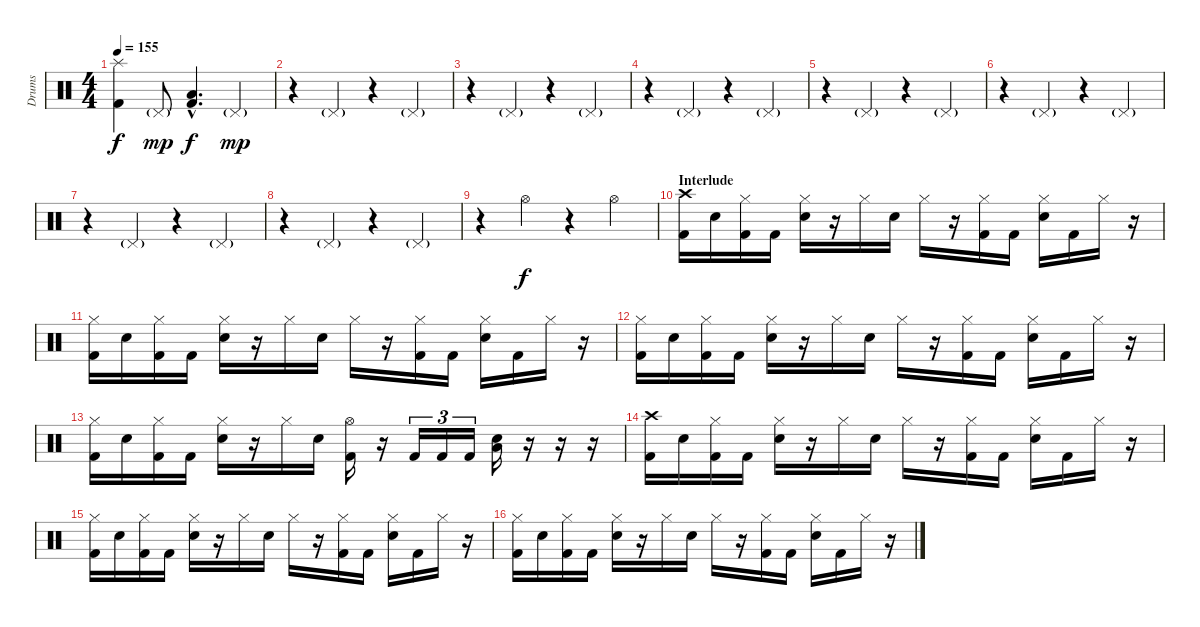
\track ("Drums" "Drums") {instrument percussion}
\staff {score}
\articulation defaults
\ts (4 4)
\tempo 155
\clef neutral
\ks c
("Splash (hit)" "Kick (hit) 2").4{dy f} "Pedal Hi-Hat (hit)"{g}.8{dy mp} ("Low Tom (hit)"{hac} "Kick (hit) 2"{hac}).4{d dy f} "Pedal Hi-Hat (hit)"{g}.4{dy mp} |
r.4 "Pedal Hi-Hat (hit)"{g}.4 r.4 "Pedal Hi-Hat (hit)"{g}.4 |
r.4 "Pedal Hi-Hat (hit)"{g}.4 r.4 "Pedal Hi-Hat (hit)"{g}.4 |
r.4 "Pedal Hi-Hat (hit)"{g}.4 r.4 "Pedal Hi-Hat (hit)"{g}.4 |
r.4 "Pedal Hi-Hat (hit)"{g}.4 r.4 "Pedal Hi-Hat (hit)"{g}.4 |
r.4 "Pedal Hi-Hat (hit)"{g}.4 r.4 "Pedal Hi-Hat (hit)"{g}.4 |
r.4 "Pedal Hi-Hat (hit)"{g}.4 r.4 "Pedal Hi-Hat (hit)"{g}.4 |
r.4 "Pedal Hi-Hat (hit)"{g}.4 r.4 "Pedal Hi-Hat (hit)"{g}.4 |
r.4 "Hi-Hat (open)".4{dy f} r.4 "Hi-Hat (open)".4 |
\section ("" "Interlude")
("Crash high (hit)" "Kick (hit) 2").16 "Electric Snare (hit)".16 ("Hi-Hat (closed)" "Kick (hit) 2").16 "Kick (hit) 2".16 ("Hi-Hat (closed)" "Electric Snare (hit)").16 r.16 "Hi-Hat (closed)".16 "Electric Snare (hit)".16 "Hi-Hat (closed)".16 r.16 ("Hi-Hat (closed)" "Kick (hit) 2").16 "Kick (hit) 2".16 ("Hi-Hat (closed)" "Electric Snare (hit)").16 "Kick (hit) 2".16 "Hi-Hat (closed)".16 r.16 |
("Hi-Hat (closed)" "Kick (hit) 2").16 "Electric Snare (hit)".16 ("Hi-Hat (closed)" "Kick (hit) 2").16 "Kick (hit) 2".16 ("Hi-Hat (closed)" "Electric Snare (hit)").16 r.16 "Hi-Hat (closed)".16 "Electric Snare (hit)".16 "Hi-Hat (closed)".16 r.16 ("Hi-Hat (closed)" "Kick (hit) 2").16 "Kick (hit) 2".16 ("Hi-Hat (closed)" "Electric Snare (hit)").16 "Kick (hit) 2".16 "Hi-Hat (closed)".16 r.16 |
("Hi-Hat (closed)" "Kick (hit) 2").16 "Electric Snare (hit)".16 ("Hi-Hat (closed)" "Kick (hit) 2").16 "Kick (hit) 2".16 ("Hi-Hat (closed)" "Electric Snare (hit)").16 r.16 "Hi-Hat (closed)".16 "Electric Snare (hit)".16 "Hi-Hat (closed)".16 r.16 ("Hi-Hat (closed)" "Kick (hit) 2").16 "Kick (hit) 2".16 ("Hi-Hat (closed)" "Electric Snare (hit)").16 "Kick (hit) 2".16 "Hi-Hat (closed)".16 r.16 |
("Hi-Hat (closed)" "Kick (hit) 2").16 "Electric Snare (hit)".16 ("Hi-Hat (closed)" "Kick (hit) 2").16 "Kick (hit) 2".16 ("Hi-Hat (closed)" "Electric Snare (hit)").16 r.16 "Hi-Hat (closed)".16 "Electric Snare (hit)".16 ("Hi-Hat (open)" "Kick (hit) 2").16 r.16 "Kick (hit) 2".16{tu (3 2)} "Kick (hit) 2".16{tu (3 2)} "Kick (hit) 2".16{tu (3 2)} ("Electric Snare (hit)" "Low Tom (hit)").16 r.16 r.16 r.16 |
("Crash high (hit)" "Kick (hit) 2").16 "Electric Snare (hit)".16 ("Hi-Hat (closed)" "Kick (hit) 2").16 "Kick (hit) 2".16 ("Hi-Hat (closed)" "Electric Snare (hit)").16 r.16 "Hi-Hat (closed)".16 "Electric Snare (hit)".16 "Hi-Hat (closed)".16 r.16 ("Hi-Hat (closed)" "Kick (hit) 2").16 "Kick (hit) 2".16 ("Hi-Hat (closed)" "Electric Snare (hit)").16 "Kick (hit) 2".16 "Hi-Hat (closed)".16 r.16 |
("Hi-Hat (closed)" "Kick (hit) 2").16 "Electric Snare (hit)".16 ("Hi-Hat (closed)" "Kick (hit) 2").16 "Kick (hit) 2".16 ("Hi-Hat (closed)" "Electric Snare (hit)").16 r.16 "Hi-Hat (closed)".16 "Electric Snare (hit)".16 "Hi-Hat (closed)".16 r.16 ("Hi-Hat (closed)" "Kick (hit) 2").16 "Kick (hit) 2".16 ("Hi-Hat (closed)" "Electric Snare (hit)").16 "Kick (hit) 2".16 "Hi-Hat (closed)".16 r.16 |
("Hi-Hat (closed)" "Kick (hit) 2").16 "Electric Snare (hit)".16 ("Hi-Hat (closed)" "Kick (hit) 2").16 "Kick (hit) 2".16 ("Hi-Hat (closed)" "Electric Snare (hit)").16 r.16 "Hi-Hat (closed)".16 "Electric Snare (hit)".16 "Hi-Hat (closed)".16 r.16 ("Hi-Hat (closed)" "Kick (hit) 2").16 "Kick (hit) 2".16 ("Hi-Hat (closed)" "Electric Snare (hit)").16 "Kick (hit) 2".16 "Hi-Hat (closed)".16 r.16
